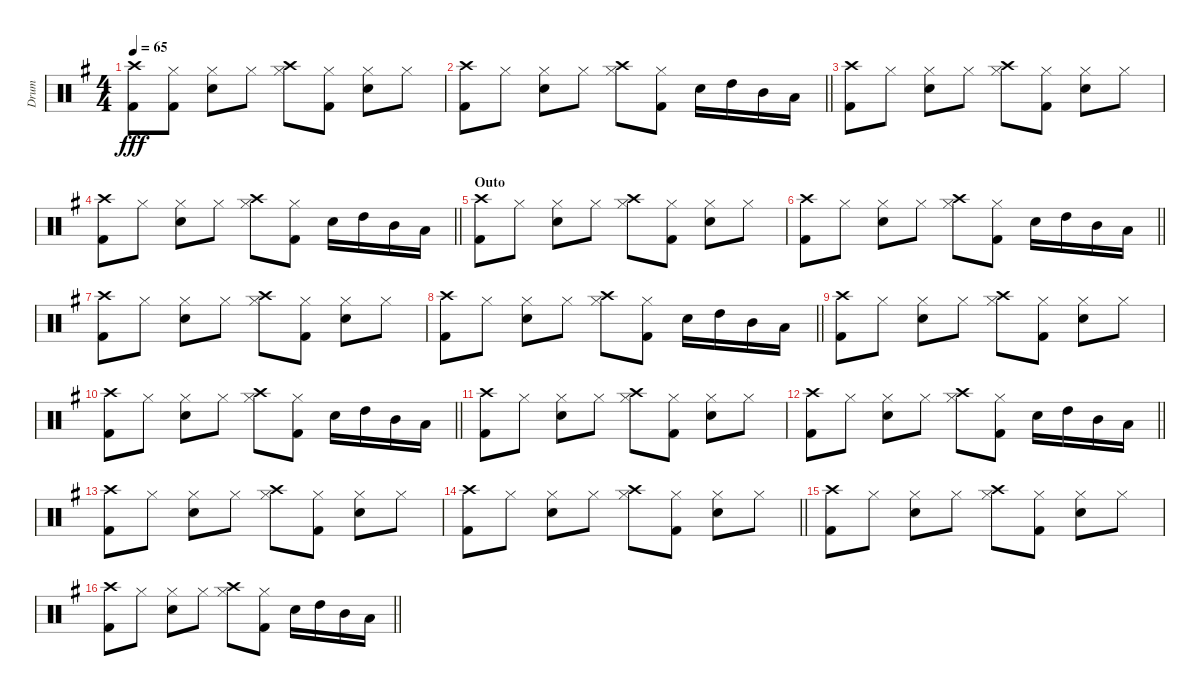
\track ("Drum" "Drum") {instrument percussion}
\staff {score}
\articulation defaults
\ts (4 4)
\tempo 65
\clef neutral
\ks eminor
("Crash high (hit)" "Kick (hit) 2").8{dy fff} ("Kick (hit) 2" "Hi-Hat (closed)").8 ("Electric Snare (hit)" "Hi-Hat (closed)").8 "Hi-Hat (closed)".8 ("Crash high (hit)" "Hi-Hat (closed)").8 ("Kick (hit) 2" "Hi-Hat (closed)").8 ("Electric Snare (hit)" "Hi-Hat (closed)").8 "Hi-Hat (closed)".8 |
\barLineRight lightlight
("Crash high (hit)" "Kick (hit) 2").8 "Hi-Hat (closed)".8 ("Electric Snare (hit)" "Hi-Hat (closed)").8 "Hi-Hat (closed)".8 ("Crash high (hit)" "Hi-Hat (closed)").8 ("Kick (hit) 2" "Hi-Hat (closed)").8 "Electric Snare (hit)".16 "High Tom (hit)".16 "Mid Tom (hit)".16 "Low Tom (hit)".16 |
("Crash high (hit)" "Kick (hit) 2").8 "Hi-Hat (closed)".8 ("Electric Snare (hit)" "Hi-Hat (closed)").8 "Hi-Hat (closed)".8 ("Crash high (hit)" "Hi-Hat (closed)").8 ("Kick (hit) 2" "Hi-Hat (closed)").8 ("Electric Snare (hit)" "Hi-Hat (closed)").8 "Hi-Hat (closed)".8 |
\barLineRight lightlight
("Crash high (hit)" "Kick (hit) 2").8 "Hi-Hat (closed)".8 ("Electric Snare (hit)" "Hi-Hat (closed)").8 "Hi-Hat (closed)".8 ("Crash high (hit)" "Hi-Hat (closed)").8 ("Kick (hit) 2" "Hi-Hat (closed)").8 "Electric Snare (hit)".16 "High Tom (hit)".16 "Mid Tom (hit)".16 "Low Tom (hit)".16 |
\section ("" "Outo")
("Crash high (hit)" "Kick (hit) 2").8 "Hi-Hat (closed)".8 ("Electric Snare (hit)" "Hi-Hat (closed)").8 "Hi-Hat (closed)".8 ("Crash high (hit)" "Hi-Hat (closed)").8 ("Kick (hit) 2" "Hi-Hat (closed)").8 ("Electric Snare (hit)" "Hi-Hat (closed)").8 "Hi-Hat (closed)".8 |
\barLineRight lightlight
("Crash high (hit)" "Kick (hit) 2").8 "Hi-Hat (closed)".8 ("Electric Snare (hit)" "Hi-Hat (closed)").8 "Hi-Hat (closed)".8 ("Crash high (hit)" "Hi-Hat (closed)").8 ("Kick (hit) 2" "Hi-Hat (closed)").8 "Electric Snare (hit)".16 "High Tom (hit)".16 "Mid Tom (hit)".16 "Low Tom (hit)".16 |
("Crash high (hit)" "Kick (hit) 2").8 "Hi-Hat (closed)".8 ("Electric Snare (hit)" "Hi-Hat (closed)").8 "Hi-Hat (closed)".8 ("Crash high (hit)" "Hi-Hat (closed)").8 ("Kick (hit) 2" "Hi-Hat (closed)").8 ("Electric Snare (hit)" "Hi-Hat (closed)").8 "Hi-Hat (closed)".8 |
\barLineRight lightlight
("Crash high (hit)" "Kick (hit) 2").8 "Hi-Hat (closed)".8 ("Electric Snare (hit)" "Hi-Hat (closed)").8 "Hi-Hat (closed)".8 ("Crash high (hit)" "Hi-Hat (closed)").8 ("Kick (hit) 2" "Hi-Hat (closed)").8 "Electric Snare (hit)".16 "High Tom (hit)".16 "Mid Tom (hit)".16 "Low Tom (hit)".16 |
("Crash high (hit)" "Kick (hit) 2").8 "Hi-Hat (closed)".8 ("Electric Snare (hit)" "Hi-Hat (closed)").8 "Hi-Hat (closed)".8 ("Crash high (hit)" "Hi-Hat (closed)").8 ("Kick (hit) 2" "Hi-Hat (closed)").8 ("Electric Snare (hit)" "Hi-Hat (closed)").8 "Hi-Hat (closed)".8 |
\barLineRight lightlight
("Crash high (hit)" "Kick (hit) 2").8 "Hi-Hat (closed)".8 ("Electric Snare (hit)" "Hi-Hat (closed)").8 "Hi-Hat (closed)".8 ("Crash high (hit)" "Hi-Hat (closed)").8 ("Kick (hit) 2" "Hi-Hat (closed)").8 "Electric Snare (hit)".16 "High Tom (hit)".16 "Mid Tom (hit)".16 "Low Tom (hit)".16 |
("Crash high (hit)" "Kick (hit) 2").8 "Hi-Hat (closed)".8 ("Electric Snare (hit)" "Hi-Hat (closed)").8 "Hi-Hat (closed)".8 ("Crash high (hit)" "Hi-Hat (closed)").8 ("Kick (hit) 2" "Hi-Hat (closed)").8 ("Electric Snare (hit)" "Hi-Hat (closed)").8 "Hi-Hat (closed)".8 |
\barLineRight lightlight
("Crash high (hit)" "Kick (hit) 2").8 "Hi-Hat (closed)".8 ("Electric Snare (hit)" "Hi-Hat (closed)").8 "Hi-Hat (closed)".8 ("Crash high (hit)" "Hi-Hat (closed)").8 ("Kick (hit) 2" "Hi-Hat (closed)").8 "Electric Snare (hit)".16 "High Tom (hit)".16 "Mid Tom (hit)".16 "Low Tom (hit)".16 |
("Crash high (hit)" "Kick (hit) 2").8 "Hi-Hat (closed)".8 ("Electric Snare (hit)" "Hi-Hat (closed)").8 "Hi-Hat (closed)".8 ("Crash high (hit)" "Hi-Hat (closed)").8 ("Kick (hit) 2" "Hi-Hat (closed)").8 ("Electric Snare (hit)" "Hi-Hat (closed)").8 "Hi-Hat (closed)".8 |
\barLineRight lightlight
("Crash high (hit)" "Kick (hit) 2").8 "Hi-Hat (closed)".8 ("Electric Snare (hit)" "Hi-Hat (closed)").8 "Hi-Hat (closed)".8 ("Crash high (hit)" "Hi-Hat (closed)").8 ("Kick (hit) 2" "Hi-Hat (closed)").8 ("Electric Snare (hit)" "Hi-Hat (closed)").8 "Hi-Hat (closed)".8 |
("Crash high (hit)" "Kick (hit) 2").8 "Hi-Hat (closed)".8 ("Electric Snare (hit)" "Hi-Hat (closed)").8 "Hi-Hat (closed)".8 ("Crash high (hit)" "Hi-Hat (closed)").8 ("Kick (hit) 2" "Hi-Hat (closed)").8 ("Electric Snare (hit)" "Hi-Hat (closed)").8 "Hi-Hat (closed)".8 |
\barLineRight lightlight
("Crash high (hit)" "Kick (hit) 2").8 "Hi-Hat (closed)".8 ("Electric Snare (hit)" "Hi-Hat (closed)").8 "Hi-Hat (closed)".8 ("Crash high (hit)" "Hi-Hat (closed)").8 ("Kick (hit) 2" "Hi-Hat (closed)").8 "Electric Snare (hit)".16 "High Tom (hit)".16 "Mid Tom (hit)".16 "Low Tom (hit)".16
